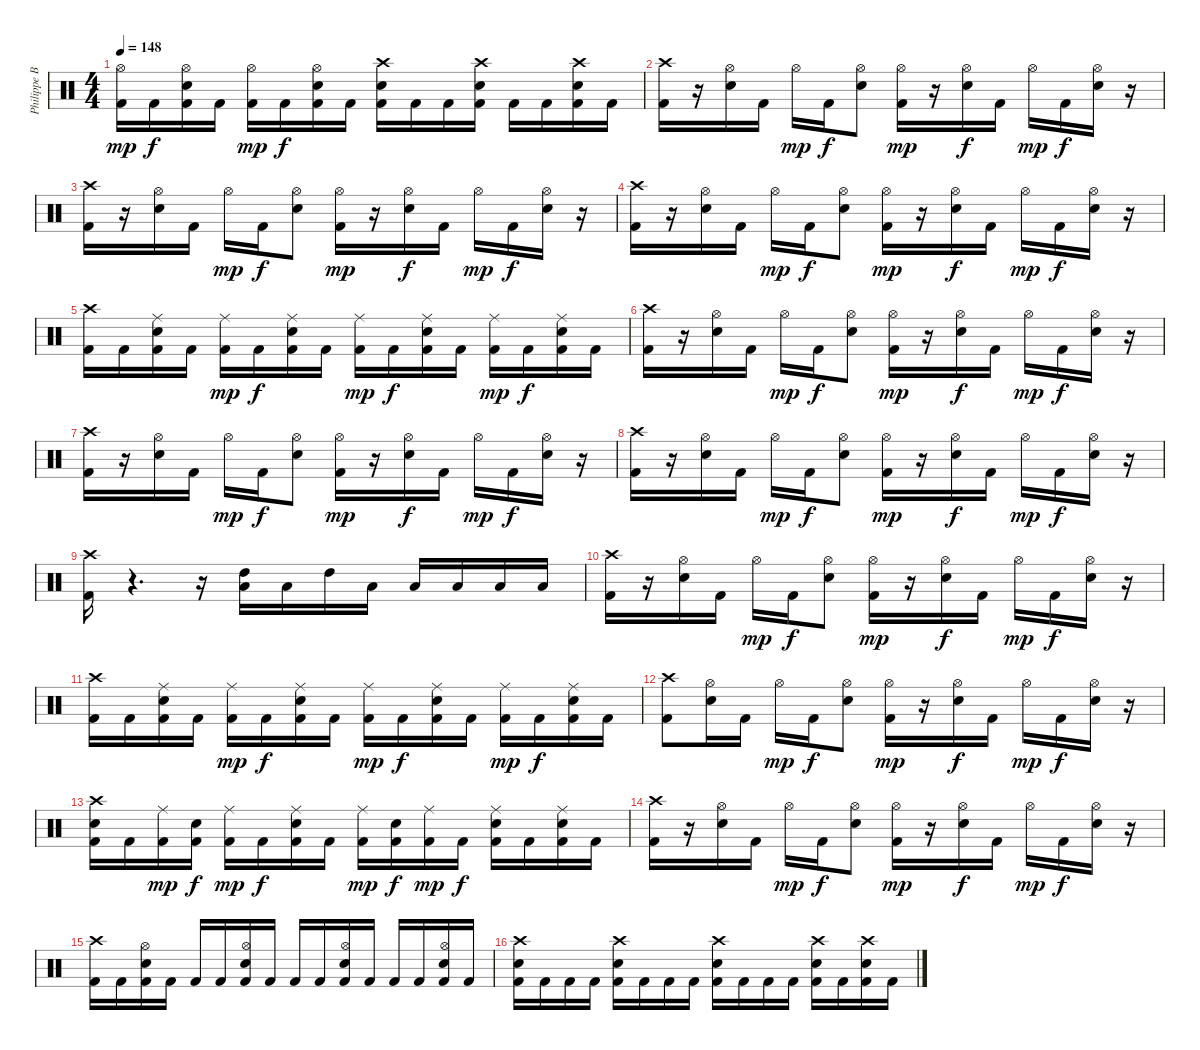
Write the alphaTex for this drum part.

\track ("Philippe Borda" "Philippe B") {instrument percussion}
\staff {score}
\articulation defaults
\ts (4 4)
\tempo 148
\clef neutral
\ks c
("Kick (hit) 2" "Hi-Hat (open)").16{dy mp} "Kick (hit) 2".16{dy f} ("Kick (hit) 2" "Snare (hit) 2" "Hi-Hat (open)").16 "Kick (hit) 2".16 ("Kick (hit) 2" "Hi-Hat (open)").16{dy mp} "Kick (hit) 2".16{dy f} ("Kick (hit) 2" "Hi-Hat (open)" "Snare (hit) 2").16 "Kick (hit) 2".16 ("Crash high (hit)" "Kick (hit) 2" "Snare (hit) 2").16 "Kick (hit) 2".16 "Kick (hit) 2".16 ("Crash high (hit)" "Kick (hit) 2" "Snare (hit) 2").16 "Kick (hit) 2".16 "Kick (hit) 2".16 ("Crash high (hit)" "Kick (hit) 2" "Snare (hit) 2").16 "Kick (hit) 2".16 |
("Crash high (hit)" "Kick (hit) 2").16 r.16 ("Hi-Hat (open)" "Snare (hit) 2").16 "Kick (hit) 2".16 "Hi-Hat (open)".16{dy mp} "Kick (hit) 2".16{dy f} ("Hi-Hat (open)" "Snare (hit) 2").8 ("Hi-Hat (open)" "Kick (hit) 2").16{dy mp} r.16 ("Hi-Hat (open)" "Snare (hit) 2").16{dy f} "Kick (hit) 2".16 "Hi-Hat (open)".16{dy mp} "Kick (hit) 2".16{dy f} ("Hi-Hat (open)" "Snare (hit) 2").16 r.16 |
("Crash high (hit)" "Kick (hit) 2").16 r.16 ("Snare (hit) 2" "Hi-Hat (open)").16 "Kick (hit) 2".16 "Hi-Hat (open)".16{dy mp} "Kick (hit) 2".16{dy f} ("Snare (hit) 2" "Hi-Hat (open)").8 ("Kick (hit) 2" "Hi-Hat (open)").16{dy mp} r.16 ("Snare (hit) 2" "Hi-Hat (open)").16{dy f} "Kick (hit) 2".16 "Hi-Hat (open)".16{dy mp} "Kick (hit) 2".16{dy f} ("Snare (hit) 2" "Hi-Hat (open)").16 r.16 |
("Crash high (hit)" "Kick (hit) 2").16 r.16 ("Snare (hit) 2" "Hi-Hat (open)").16 "Kick (hit) 2".16 "Hi-Hat (open)".16{dy mp} "Kick (hit) 2".16{dy f} ("Snare (hit) 2" "Hi-Hat (open)").8 ("Kick (hit) 2" "Hi-Hat (open)").16{dy mp} r.16 ("Snare (hit) 2" "Hi-Hat (open)").16{dy f} "Kick (hit) 2".16 "Hi-Hat (open)".16{dy mp} "Kick (hit) 2".16{dy f} ("Snare (hit) 2" "Hi-Hat (open)").16 r.16 |
("Crash high (hit)" "Kick (hit) 2").16 "Kick (hit) 2".16 ("Kick (hit) 2" "Ride (middle)" "Snare (hit) 2").16 "Kick (hit) 2".16 ("Kick (hit) 2" "Ride (middle)").16{dy mp} "Kick (hit) 2".16{dy f} ("Kick (hit) 2" "Ride (middle)" "Snare (hit) 2").16 "Kick (hit) 2".16 ("Kick (hit) 2" "Ride (middle)").16{dy mp} "Kick (hit) 2".16{dy f} ("Kick (hit) 2" "Ride (middle)" "Snare (hit) 2").16 "Kick (hit) 2".16 ("Kick (hit) 2" "Ride (middle)").16{dy mp} "Kick (hit) 2".16{dy f} ("Kick (hit) 2" "Ride (middle)" "Snare (hit) 2").16 "Kick (hit) 2".16 |
("Crash high (hit)" "Kick (hit) 2").16 r.16 ("Snare (hit) 2" "Hi-Hat (open)").16 "Kick (hit) 2".16 "Hi-Hat (open)".16{dy mp} "Kick (hit) 2".16{dy f} ("Snare (hit) 2" "Hi-Hat (open)").8 ("Kick (hit) 2" "Hi-Hat (open)").16{dy mp} r.16 ("Snare (hit) 2" "Hi-Hat (open)").16{dy f} "Kick (hit) 2".16 "Hi-Hat (open)".16{dy mp} "Kick (hit) 2".16{dy f} ("Snare (hit) 2" "Hi-Hat (open)").16 r.16 |
("Crash high (hit)" "Kick (hit) 2").16 r.16 ("Snare (hit) 2" "Hi-Hat (open)").16 "Kick (hit) 2".16 "Hi-Hat (open)".16{dy mp} "Kick (hit) 2".16{dy f} ("Snare (hit) 2" "Hi-Hat (open)").8 ("Kick (hit) 2" "Hi-Hat (open)").16{dy mp} r.16 ("Snare (hit) 2" "Hi-Hat (open)").16{dy f} "Kick (hit) 2".16 "Hi-Hat (open)".16{dy mp} "Kick (hit) 2".16{dy f} ("Snare (hit) 2" "Hi-Hat (open)").16 r.16 |
("Crash high (hit)" "Kick (hit) 2").16 r.16 ("Snare (hit) 2" "Hi-Hat (open)").16 "Kick (hit) 2".16 "Hi-Hat (open)".16{dy mp} "Kick (hit) 2".16{dy f} ("Snare (hit) 2" "Hi-Hat (open)").8 ("Kick (hit) 2" "Hi-Hat (open)").16{dy mp} r.16 ("Snare (hit) 2" "Hi-Hat (open)").16{dy f} "Kick (hit) 2".16 "Hi-Hat (open)".16{dy mp} "Kick (hit) 2".16{dy f} ("Snare (hit) 2" "Hi-Hat (open)").16 r.16 |
("Crash high (hit)" "Kick (hit) 2").16 r.4{d} r.16 ("Low Tom (hit)" "High Tom (hit)").16 "Low Tom (hit)".16 "High Tom (hit)".16 "Low Tom (hit)".16 "Low Floor Tom (hit)".16 "Low Floor Tom (hit)".16 "Low Floor Tom (hit)".16 "Low Floor Tom (hit)".16 |
("Crash high (hit)" "Kick (hit) 2").16 r.16 ("Hi-Hat (open)" "Snare (hit) 2").16 "Kick (hit) 2".16 "Hi-Hat (open)".16{dy mp} "Kick (hit) 2".16{dy f} ("Hi-Hat (open)" "Snare (hit) 2").8 ("Hi-Hat (open)" "Kick (hit) 2").16{dy mp} r.16 ("Hi-Hat (open)" "Snare (hit) 2").16{dy f} "Kick (hit) 2".16 "Hi-Hat (open)".16{dy mp} "Kick (hit) 2".16{dy f} ("Hi-Hat (open)" "Snare (hit) 2").16 r.16 |
("Crash high (hit)" "Kick (hit) 2").16 "Kick (hit) 2".16 ("Kick (hit) 2" "Ride (middle)" "Snare (hit) 2").16 "Kick (hit) 2".16 ("Kick (hit) 2" "Ride (middle)").16{dy mp} "Kick (hit) 2".16{dy f} ("Kick (hit) 2" "Ride (middle)" "Snare (hit) 2").16 "Kick (hit) 2".16 ("Kick (hit) 2" "Ride (middle)").16{dy mp} "Kick (hit) 2".16{dy f} ("Kick (hit) 2" "Ride (middle)" "Snare (hit) 2").16 "Kick (hit) 2".16 ("Kick (hit) 2" "Ride (middle)").16{dy mp} "Kick (hit) 2".16{dy f} ("Kick (hit) 2" "Ride (middle)" "Snare (hit) 2").16 "Kick (hit) 2".16 |
("Crash high (hit)" "Kick (hit) 2").8 ("Snare (hit) 2" "Hi-Hat (open)").16 "Kick (hit) 2".16 "Hi-Hat (open)".16{dy mp} "Kick (hit) 2".16{dy f} ("Snare (hit) 2" "Hi-Hat (open)").8 ("Kick (hit) 2" "Hi-Hat (open)").16{dy mp} r.16 ("Snare (hit) 2" "Hi-Hat (open)").16{dy f} "Kick (hit) 2".16 "Hi-Hat (open)".16{dy mp} "Kick (hit) 2".16{dy f} ("Snare (hit) 2" "Hi-Hat (open)").16 r.16 |
("Crash high (hit)" "Kick (hit) 2" "Snare (hit) 2").16 "Kick (hit) 2".16 ("Kick (hit) 2" "Ride (middle)").16{dy mp} ("Snare (hit) 2" "Kick (hit) 2").16{dy f} ("Kick (hit) 2" "Ride (middle)").16{dy mp} "Kick (hit) 2".16{dy f} ("Kick (hit) 2" "Snare (hit) 2" "Ride (middle)").16 "Kick (hit) 2".16 ("Kick (hit) 2" "Ride (middle)").16{dy mp} ("Snare (hit) 2" "Kick (hit) 2").16{dy f} ("Kick (hit) 2" "Ride (middle)").16{dy mp} "Kick (hit) 2".16{dy f} ("Kick (hit) 2" "Snare (hit) 2" "Ride (middle)").16 "Kick (hit) 2".16 ("Kick (hit) 2" "Snare (hit) 2" "Ride (middle)").16 "Kick (hit) 2".16 |
("Crash high (hit)" "Kick (hit) 2").16 r.16 ("Snare (hit) 2" "Hi-Hat (open)").16 "Kick (hit) 2".16 "Hi-Hat (open)".16{dy mp} "Kick (hit) 2".16{dy f} ("Snare (hit) 2" "Hi-Hat (open)").8 ("Kick (hit) 2" "Hi-Hat (open)").16{dy mp} r.16 ("Snare (hit) 2" "Hi-Hat (open)").16{dy f} "Kick (hit) 2".16 "Hi-Hat (open)".16{dy mp} "Kick (hit) 2".16{dy f} ("Snare (hit) 2" "Hi-Hat (open)").16 r.16 |
("Crash high (hit)" "Kick (hit) 2").16 "Kick (hit) 2".16 ("Kick (hit) 2" "Snare (hit) 2" "Hi-Hat (open)").16 "Kick (hit) 2".16 "Kick (hit) 2".16 "Kick (hit) 2".16 ("Kick (hit) 2" "Snare (hit) 2" "Hi-Hat (open)").16 "Kick (hit) 2".16 "Kick (hit) 2".16 "Kick (hit) 2".16 ("Kick (hit) 2" "Snare (hit) 2" "Hi-Hat (open)").16 "Kick (hit) 2".16 "Kick (hit) 2".16 "Kick (hit) 2".16 ("Kick (hit) 2" "Snare (hit) 2" "Hi-Hat (open)").16 "Kick (hit) 2".16 |
("Crash high (hit)" "Kick (hit) 2" "Snare (hit) 2").16 "Kick (hit) 2".16 "Kick (hit) 2".16 "Kick (hit) 2".16 ("Crash high (hit)" "Kick (hit) 2" "Snare (hit) 2").16 "Kick (hit) 2".16 "Kick (hit) 2".16 "Kick (hit) 2".16 ("Crash high (hit)" "Kick (hit) 2" "Snare (hit) 2").16 "Kick (hit) 2".16 "Kick (hit) 2".16 "Kick (hit) 2".16 ("Crash high (hit)" "Kick (hit) 2" "Snare (hit) 2").16 "Kick (hit) 2".16 ("Crash high (hit)" "Kick (hit) 2" "Snare (hit) 2").16 "Kick (hit) 2".16
